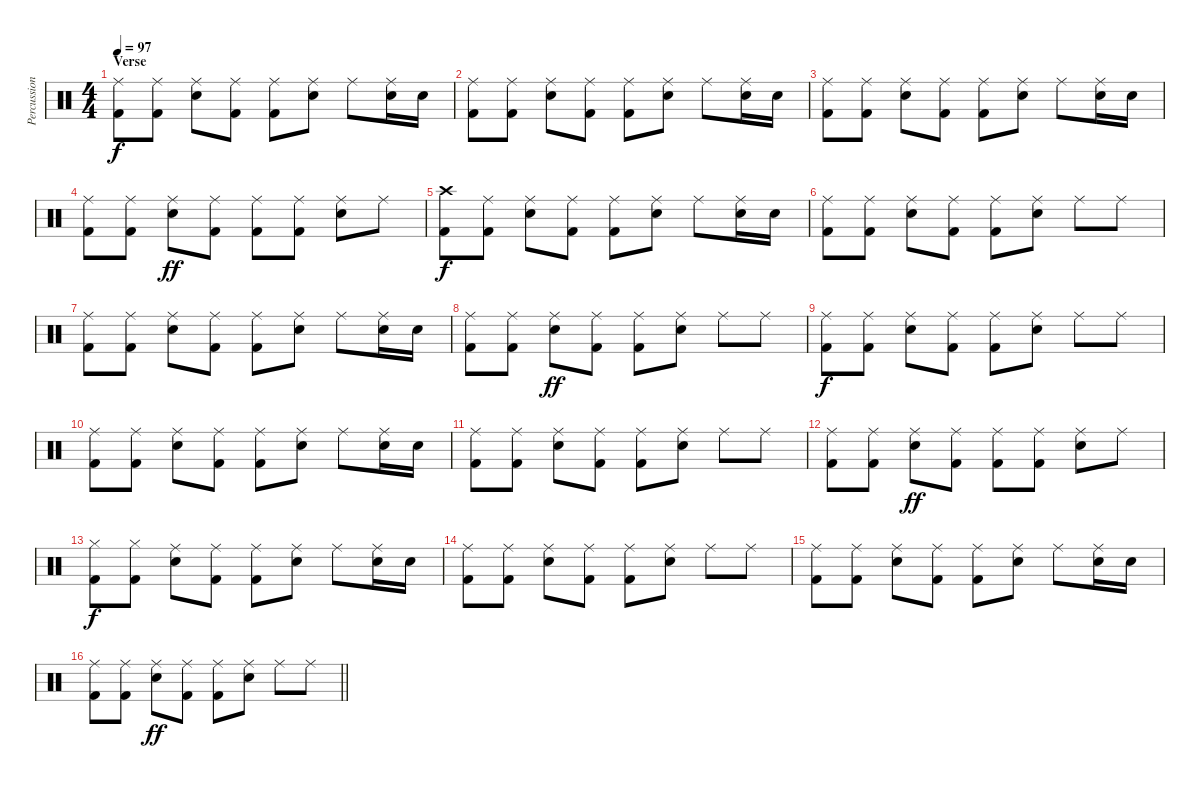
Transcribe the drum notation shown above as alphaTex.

\track ("Percussion" "Percussion") {instrument percussion}
\staff {score}
\articulation defaults
\ts (4 4)
\section ("" "Verse")
\tempo 97
\clef neutral
\ks c
("Ride (middle)" "Kick (hit) 2").8{dy f} ("Ride (middle)" "Kick (hit) 2").8 ("Ride (middle)" "Snare (hit) 2").8 ("Ride (middle)" "Kick (hit) 2").8 ("Ride (middle)" "Kick (hit) 2").8 ("Ride (middle)" "Snare (hit) 2").8 "Ride (middle)".8 ("Ride (middle)" "Snare (hit) 2").16 "Snare (hit) 2".16 |
("Ride (middle)" "Kick (hit) 2").8 ("Ride (middle)" "Kick (hit) 2").8 ("Ride (middle)" "Snare (hit) 2").8 ("Ride (middle)" "Kick (hit) 2").8 ("Ride (middle)" "Kick (hit) 2").8 ("Ride (middle)" "Snare (hit) 2").8 "Ride (middle)".8 ("Ride (middle)" "Snare (hit) 2").16 "Snare (hit) 2".16 |
("Ride (middle)" "Kick (hit) 2").8 ("Ride (middle)" "Kick (hit) 2").8 ("Ride (middle)" "Snare (hit) 2").8 ("Ride (middle)" "Kick (hit) 2").8 ("Ride (middle)" "Kick (hit) 2").8 ("Ride (middle)" "Snare (hit) 2").8 "Ride (middle)".8 ("Ride (middle)" "Snare (hit) 2").16 "Snare (hit) 2".16 |
("Ride (middle)" "Kick (hit) 2").8 ("Ride (middle)" "Kick (hit) 2").8 ("Ride (middle)" "Snare (hit) 2").8{dy ff} ("Ride (middle)" "Kick (hit) 2").8 ("Ride (middle)" "Kick (hit) 2").8 ("Ride (middle)" "Kick (hit) 2").8 ("Ride (middle)" "Snare (hit) 2").8 "Ride (middle)".8 |
("Crash high (hit)" "Kick (hit) 2").8{dy f} ("Ride (middle)" "Kick (hit) 2").8 ("Ride (middle)" "Snare (hit) 2").8 ("Ride (middle)" "Kick (hit) 2").8 ("Ride (middle)" "Kick (hit) 2").8 ("Ride (middle)" "Snare (hit) 2").8 "Ride (middle)".8 ("Ride (middle)" "Snare (hit) 2").16 "Snare (hit) 2".16 |
("Ride (middle)" "Kick (hit) 2").8 ("Ride (middle)" "Kick (hit) 2").8 ("Ride (middle)" "Snare (hit) 2").8 ("Ride (middle)" "Kick (hit) 2").8 ("Ride (middle)" "Kick (hit) 2").8 ("Ride (middle)" "Snare (hit) 2").8 "Ride (middle)".8 "Ride (middle)".8 |
("Ride (middle)" "Kick (hit) 2").8 ("Ride (middle)" "Kick (hit) 2").8 ("Ride (middle)" "Snare (hit) 2").8 ("Ride (middle)" "Kick (hit) 2").8 ("Ride (middle)" "Kick (hit) 2").8 ("Ride (middle)" "Snare (hit) 2").8 "Ride (middle)".8 ("Ride (middle)" "Snare (hit) 2").16 "Snare (hit) 2".16 |
("Ride (middle)" "Kick (hit) 2").8 ("Ride (middle)" "Kick (hit) 2").8 ("Ride (middle)" "Snare (hit) 2").8{dy ff} ("Ride (middle)" "Kick (hit) 2").8 ("Ride (middle)" "Kick (hit) 2").8 ("Ride (middle)" "Snare (hit) 2").8 "Ride (middle)".8 "Ride (middle)".8 |
("Ride (middle)" "Kick (hit) 2").8{dy f} ("Ride (middle)" "Kick (hit) 2").8 ("Ride (middle)" "Snare (hit) 2").8 ("Ride (middle)" "Kick (hit) 2").8 ("Ride (middle)" "Kick (hit) 2").8 ("Ride (middle)" "Snare (hit) 2").8 "Ride (middle)".8 "Ride (middle)".8 |
("Ride (middle)" "Kick (hit) 2").8 ("Ride (middle)" "Kick (hit) 2").8 ("Ride (middle)" "Snare (hit) 2").8 ("Ride (middle)" "Kick (hit) 2").8 ("Ride (middle)" "Kick (hit) 2").8 ("Ride (middle)" "Snare (hit) 2").8 "Ride (middle)".8 ("Ride (middle)" "Snare (hit) 2").16 "Snare (hit) 2".16 |
("Ride (middle)" "Kick (hit) 2").8 ("Ride (middle)" "Kick (hit) 2").8 ("Ride (middle)" "Snare (hit) 2").8 ("Ride (middle)" "Kick (hit) 2").8 ("Ride (middle)" "Kick (hit) 2").8 ("Ride (middle)" "Snare (hit) 2").8 "Ride (middle)".8 "Ride (middle)".8 |
("Ride (middle)" "Kick (hit) 2").8 ("Ride (middle)" "Kick (hit) 2").8 ("Ride (middle)" "Snare (hit) 2").8{dy ff} ("Ride (middle)" "Kick (hit) 2").8 ("Ride (middle)" "Kick (hit) 2").8 ("Ride (middle)" "Kick (hit) 2").8 ("Ride (middle)" "Snare (hit) 2").8 "Ride (middle)".8 |
("Hi-Hat (closed)" "Kick (hit) 2").8{dy f} ("Hi-Hat (closed)" "Kick (hit) 2").8 ("Ride (middle)" "Snare (hit) 2").8 ("Ride (middle)" "Kick (hit) 2").8 ("Ride (middle)" "Kick (hit) 2").8 ("Ride (middle)" "Snare (hit) 2").8 "Ride (middle)".8 ("Ride (middle)" "Snare (hit) 2").16 "Snare (hit) 2".16 |
("Ride (middle)" "Kick (hit) 2").8 ("Ride (middle)" "Kick (hit) 2").8 ("Ride (middle)" "Snare (hit) 2").8 ("Ride (middle)" "Kick (hit) 2").8 ("Ride (middle)" "Kick (hit) 2").8 ("Ride (middle)" "Snare (hit) 2").8 "Ride (middle)".8 "Ride (middle)".8 |
("Ride (middle)" "Kick (hit) 2").8 ("Ride (middle)" "Kick (hit) 2").8 ("Ride (middle)" "Snare (hit) 2").8 ("Ride (middle)" "Kick (hit) 2").8 ("Ride (middle)" "Kick (hit) 2").8 ("Ride (middle)" "Snare (hit) 2").8 "Ride (middle)".8 ("Ride (middle)" "Snare (hit) 2").16 "Snare (hit) 2".16 |
\barLineRight lightlight
("Ride (middle)" "Kick (hit) 2").8 ("Ride (middle)" "Kick (hit) 2").8 ("Ride (middle)" "Snare (hit) 2").8{dy ff} ("Ride (middle)" "Kick (hit) 2").8 ("Ride (middle)" "Kick (hit) 2").8 ("Ride (middle)" "Snare (hit) 2").8 "Ride (middle)".8 "Ride (middle)".8
